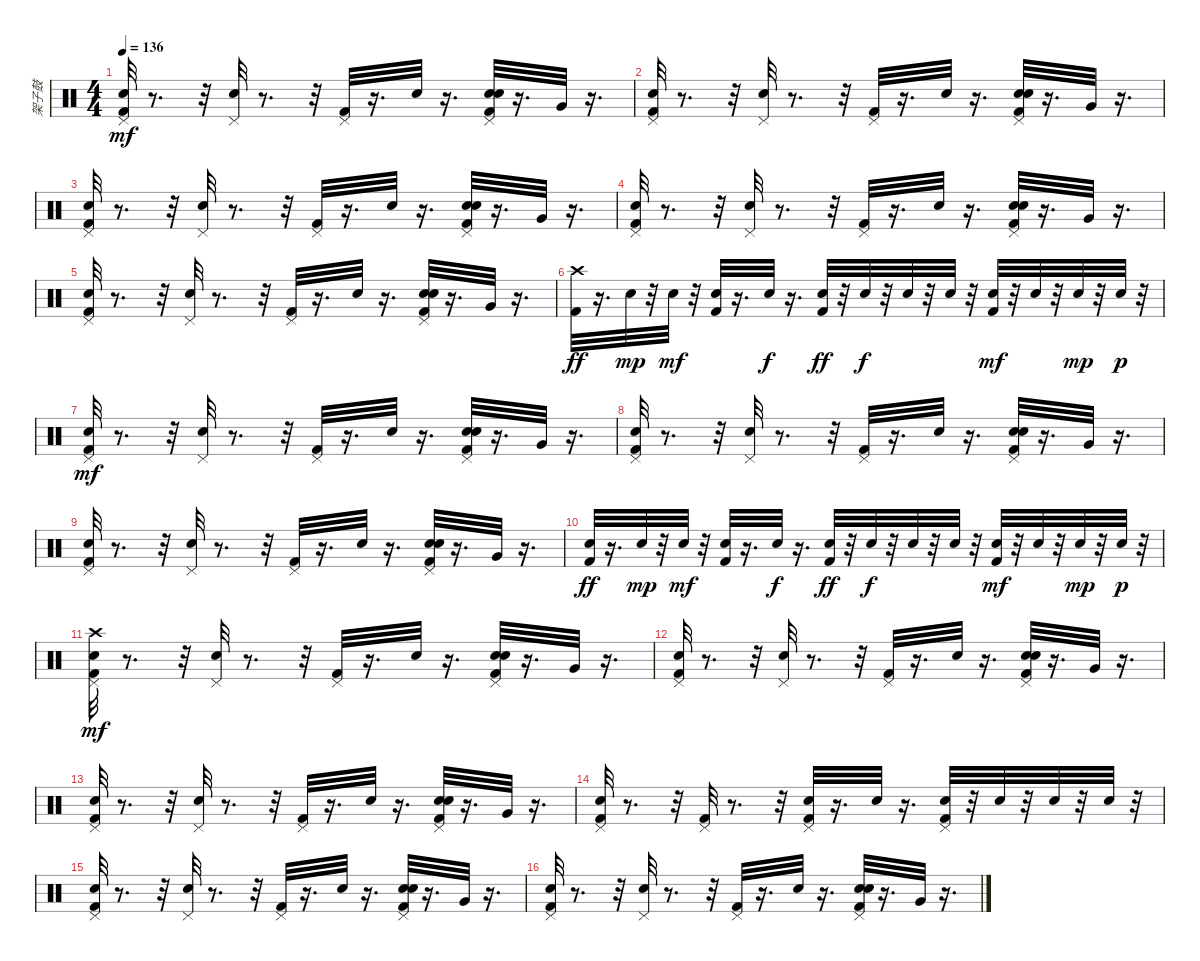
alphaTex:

\track ("架子鼓" "架子鼓") {instrument percussion}
\staff {score}
\articulation defaults
\ts (4 4)
\tempo 136
\clef neutral
\ks c
("Pedal Hi-Hat (hit)" "Kick (hit) 2" "Metronome (bell)").32{dy mf} r.8{d} r.32 ("Pedal Hi-Hat (hit)" "Metronome (bell)").32 r.8{d} r.32 ("Pedal Hi-Hat (hit)" "Kick (hit) 2").32 r.16{d} "Metronome (bell)".32 r.16{d} ("Pedal Hi-Hat (hit)" "Electric Snare (hit)" "Kick (hit) 2" "Metronome (bell)").32 r.16{d} "Very Low Tom (hit)".32 r.16{d} |
("Pedal Hi-Hat (hit)" "Kick (hit) 2" "Metronome (bell)").32 r.8{d} r.32 ("Pedal Hi-Hat (hit)" "Metronome (bell)").32 r.8{d} r.32 ("Pedal Hi-Hat (hit)" "Kick (hit) 2").32 r.16{d} "Metronome (bell)".32 r.16{d} ("Pedal Hi-Hat (hit)" "Electric Snare (hit)" "Kick (hit) 2" "Metronome (bell)").32 r.16{d} "Very Low Tom (hit)".32 r.16{d} |
("Pedal Hi-Hat (hit)" "Kick (hit) 2" "Metronome (bell)").32 r.8{d} r.32 ("Pedal Hi-Hat (hit)" "Metronome (bell)").32 r.8{d} r.32 ("Pedal Hi-Hat (hit)" "Kick (hit) 2").32 r.16{d} "Metronome (bell)".32 r.16{d} ("Pedal Hi-Hat (hit)" "Electric Snare (hit)" "Kick (hit) 2" "Metronome (bell)").32 r.16{d} "Very Low Tom (hit)".32 r.16{d} |
("Pedal Hi-Hat (hit)" "Kick (hit) 2" "Metronome (bell)").32 r.8{d} r.32 ("Pedal Hi-Hat (hit)" "Metronome (bell)").32 r.8{d} r.32 ("Pedal Hi-Hat (hit)" "Kick (hit) 2").32 r.16{d} "Metronome (bell)".32 r.16{d} ("Pedal Hi-Hat (hit)" "Electric Snare (hit)" "Kick (hit) 2" "Metronome (bell)").32 r.16{d} "Very Low Tom (hit)".32 r.16{d} |
("Pedal Hi-Hat (hit)" "Kick (hit) 2" "Metronome (bell)").32 r.8{d} r.32 ("Pedal Hi-Hat (hit)" "Metronome (bell)").32 r.8{d} r.32 ("Pedal Hi-Hat (hit)" "Kick (hit) 2").32 r.16{d} "Metronome (bell)".32 r.16{d} ("Pedal Hi-Hat (hit)" "Electric Snare (hit)" "Kick (hit) 2" "Metronome (bell)").32 r.16{d} "Very Low Tom (hit)".32 r.16{d} |
("Crash high (hit)" "Kick (hit) 2").32{dy ff} r.16{d} "Metronome (bell)".32{dy mp} r.32 "Metronome (bell)".32{dy mf} r.32 ("Metronome (bell)" "Kick (hit) 2").32 r.16{d} "Metronome (bell)".32{dy f} r.16{d} ("Kick (hit) 2" "Metronome (bell)").32{dy ff} r.32 "Metronome (bell)".32{dy f} r.32 "Metronome (bell)".32 r.32 "Metronome (bell)".32 r.32 ("Kick (hit) 2" "Metronome (bell)").32{dy mf} r.32 "Metronome (bell)".32 r.32 "Metronome (bell)".32{dy mp} r.32 "Metronome (bell)".32{dy p} r.32 |
("Pedal Hi-Hat (hit)" "Kick (hit) 2" "Metronome (bell)").32{dy mf} r.8{d} r.32 ("Pedal Hi-Hat (hit)" "Metronome (bell)").32 r.8{d} r.32 ("Pedal Hi-Hat (hit)" "Kick (hit) 2").32 r.16{d} "Metronome (bell)".32 r.16{d} ("Pedal Hi-Hat (hit)" "Electric Snare (hit)" "Kick (hit) 2" "Metronome (bell)").32 r.16{d} "Very Low Tom (hit)".32 r.16{d} |
("Pedal Hi-Hat (hit)" "Kick (hit) 2" "Metronome (bell)").32 r.8{d} r.32 ("Pedal Hi-Hat (hit)" "Metronome (bell)").32 r.8{d} r.32 ("Pedal Hi-Hat (hit)" "Kick (hit) 2").32 r.16{d} "Metronome (bell)".32 r.16{d} ("Pedal Hi-Hat (hit)" "Electric Snare (hit)" "Kick (hit) 2" "Metronome (bell)").32 r.16{d} "Very Low Tom (hit)".32 r.16{d} |
("Pedal Hi-Hat (hit)" "Kick (hit) 2" "Metronome (bell)").32 r.8{d} r.32 ("Pedal Hi-Hat (hit)" "Metronome (bell)").32 r.8{d} r.32 ("Pedal Hi-Hat (hit)" "Kick (hit) 2").32 r.16{d} "Metronome (bell)".32 r.16{d} ("Pedal Hi-Hat (hit)" "Electric Snare (hit)" "Kick (hit) 2" "Metronome (bell)").32 r.16{d} "Very Low Tom (hit)".32 r.16{d} |
("Metronome (bell)" "Kick (hit) 2").32{dy ff} r.16{d} "Metronome (bell)".32{dy mp} r.32 "Metronome (bell)".32{dy mf} r.32 ("Metronome (bell)" "Kick (hit) 2").32 r.16{d} "Metronome (bell)".32{dy f} r.16{d} ("Kick (hit) 2" "Metronome (bell)").32{dy ff} r.32 "Metronome (bell)".32{dy f} r.32 "Metronome (bell)".32 r.32 "Metronome (bell)".32 r.32 ("Kick (hit) 2" "Metronome (bell)").32{dy mf} r.32 "Metronome (bell)".32 r.32 "Metronome (bell)".32{dy mp} r.32 "Metronome (bell)".32{dy p} r.32 |
("Pedal Hi-Hat (hit)" "Kick (hit) 2" "Metronome (bell)" "Crash high (hit)").32{dy mf} r.8{d} r.32 ("Pedal Hi-Hat (hit)" "Metronome (bell)").32 r.8{d} r.32 ("Pedal Hi-Hat (hit)" "Kick (hit) 2").32 r.16{d} "Metronome (bell)".32 r.16{d} ("Pedal Hi-Hat (hit)" "Electric Snare (hit)" "Kick (hit) 2" "Metronome (bell)").32 r.16{d} "Very Low Tom (hit)".32 r.16{d} |
("Pedal Hi-Hat (hit)" "Kick (hit) 2" "Metronome (bell)").32 r.8{d} r.32 ("Pedal Hi-Hat (hit)" "Metronome (bell)").32 r.8{d} r.32 ("Pedal Hi-Hat (hit)" "Kick (hit) 2").32 r.16{d} "Metronome (bell)".32 r.16{d} ("Pedal Hi-Hat (hit)" "Electric Snare (hit)" "Kick (hit) 2" "Metronome (bell)").32 r.16{d} "Very Low Tom (hit)".32 r.16{d} |
("Pedal Hi-Hat (hit)" "Kick (hit) 2" "Metronome (bell)").32 r.8{d} r.32 ("Pedal Hi-Hat (hit)" "Metronome (bell)").32 r.8{d} r.32 ("Pedal Hi-Hat (hit)" "Kick (hit) 2").32 r.16{d} "Metronome (bell)".32 r.16{d} ("Pedal Hi-Hat (hit)" "Electric Snare (hit)" "Kick (hit) 2" "Metronome (bell)").32 r.16{d} "Very Low Tom (hit)".32 r.16{d} |
("Pedal Hi-Hat (hit)" "Kick (hit) 2" "Metronome (bell)").32 r.8{d} r.32 ("Pedal Hi-Hat (hit)" "Kick (hit) 2").32 r.8{d} r.32 ("Pedal Hi-Hat (hit)" "Kick (hit) 2" "Metronome (bell)").32 r.16{d} "Metronome (bell)".32 r.16{d} ("Pedal Hi-Hat (hit)" "Kick (hit) 2" "Metronome (bell)").32 r.32 "Metronome (bell)".32 r.32 "Metronome (bell)".32 r.32 "Metronome (bell)".32 r.32 |
("Pedal Hi-Hat (hit)" "Kick (hit) 2" "Metronome (bell)").32 r.8{d} r.32 ("Pedal Hi-Hat (hit)" "Metronome (bell)").32 r.8{d} r.32 ("Pedal Hi-Hat (hit)" "Kick (hit) 2").32 r.16{d} "Metronome (bell)".32 r.16{d} ("Pedal Hi-Hat (hit)" "Electric Snare (hit)" "Kick (hit) 2" "Metronome (bell)").32 r.16{d} "Very Low Tom (hit)".32 r.16{d} |
("Pedal Hi-Hat (hit)" "Kick (hit) 2" "Metronome (bell)").32 r.8{d} r.32 ("Pedal Hi-Hat (hit)" "Metronome (bell)").32 r.8{d} r.32 ("Pedal Hi-Hat (hit)" "Kick (hit) 2").32 r.16{d} "Metronome (bell)".32 r.16{d} ("Pedal Hi-Hat (hit)" "Electric Snare (hit)" "Kick (hit) 2" "Metronome (bell)").32 r.16{d} "Very Low Tom (hit)".32 r.16{d}
